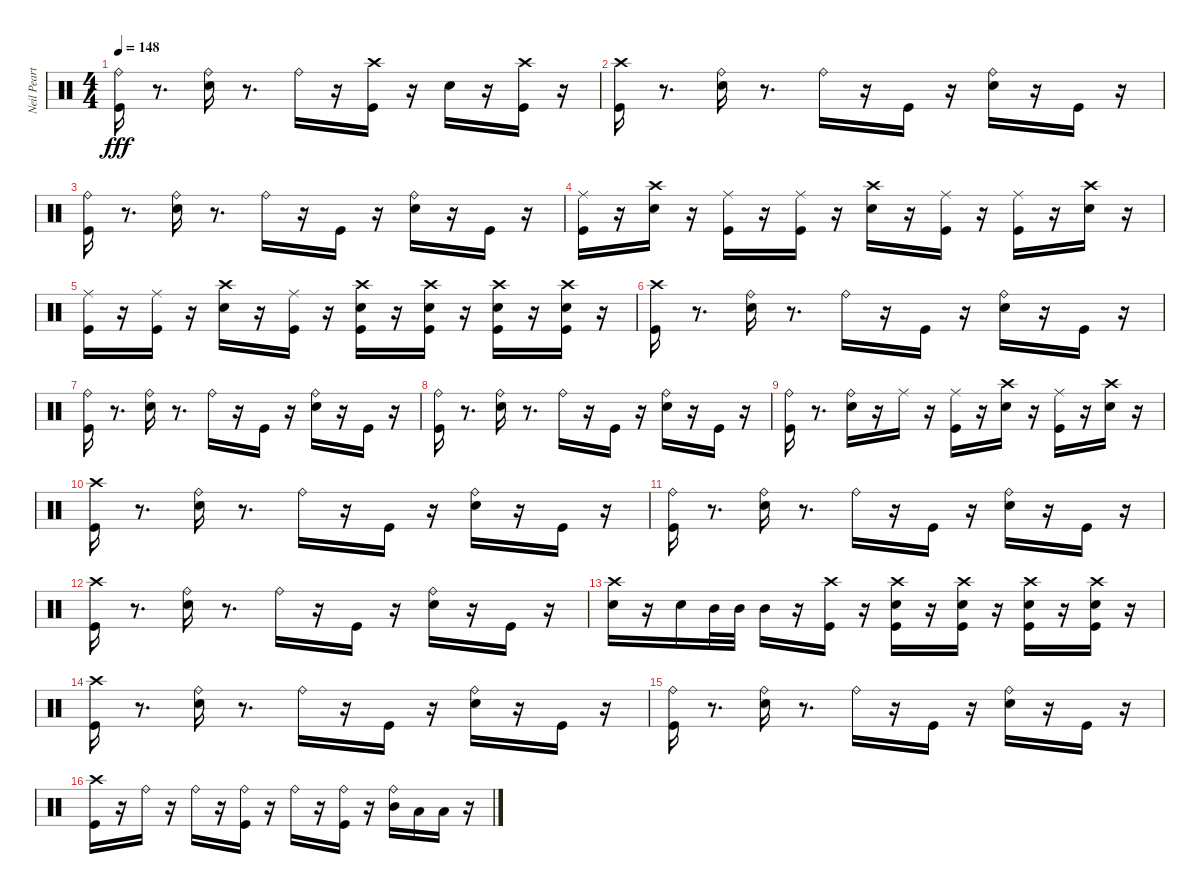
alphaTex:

\track ("Neil Peart" "Neil Peart") {instrument percussion}
\staff {score}
\articulation defaults
\ts (4 4)
\tempo 148
\clef neutral
\ks c
("Kick (hit)" "Ride (bell)").16{dy fff} r.8{d} ("Snare (hit) 2" "Ride (bell)").16 r.8{d} "Ride (bell)".16 r.16 ("Crash high (hit)" "Kick (hit)").16 r.16 "Snare (hit) 2".16 r.16 ("Crash high (hit)" "Kick (hit)").16 r.16 |
("Crash high (hit)" "Kick (hit)").16 r.8{d} ("Ride (bell)" "Snare (hit) 2").16 r.8{d} "Ride (bell)".16 r.16 "Kick (hit)".16 r.16 ("Ride (bell)" "Snare (hit) 2").16 r.16 "Kick (hit)".16 r.16 |
("Ride (bell)" "Kick (hit)").16 r.8{d} ("Ride (bell)" "Snare (hit) 2").16 r.8{d} "Ride (bell)".16 r.16 "Kick (hit)".16 r.16 ("Ride (bell)" "Snare (hit) 2").16 r.16 "Kick (hit)".16 r.16 |
("Kick (hit)" "Ride (middle)").16 r.16 ("Crash high (hit)" "Snare (hit) 2").16 r.16 ("Kick (hit)" "Ride (middle)").16 r.16 ("Kick (hit)" "Ride (middle)").16 r.16 ("Crash high (hit)" "Snare (hit) 2").16 r.16 ("Kick (hit)" "Ride (middle)").16 r.16 ("Kick (hit)" "Ride (middle)").16 r.16 ("Crash high (hit)" "Snare (hit) 2").16 r.16 |
("Ride (middle)" "Kick (hit)").16 r.16 ("Ride (middle)" "Kick (hit)").16 r.16 ("Crash high (hit)" "Snare (hit) 2").16 r.16 ("Ride (middle)" "Kick (hit)").16 r.16 ("Crash high (hit)" "Snare (hit) 2" "Kick (hit)").16 r.16 ("Crash high (hit)" "Snare (hit) 2" "Kick (hit)").16 r.16 ("Crash high (hit)" "Snare (hit) 2" "Kick (hit)").16 r.16 ("Crash high (hit)" "Snare (hit) 2" "Kick (hit)").16 r.16 |
("Crash high (hit)" "Kick (hit)").16 r.8{d} ("Snare (hit) 2" "Ride (bell)").16 r.8{d} "Ride (bell)".16 r.16 "Kick (hit)".16 r.16 ("Snare (hit) 2" "Ride (bell)").16 r.16 "Kick (hit)".16 r.16 |
("Kick (hit)" "Ride (bell)").16 r.8{d} ("Snare (hit) 2" "Ride (bell)").16 r.8{d} "Ride (bell)".16 r.16 "Kick (hit)".16 r.16 ("Snare (hit) 2" "Ride (bell)").16 r.16 "Kick (hit)".16 r.16 |
("Kick (hit)" "Ride (bell)").16 r.8{d} ("Snare (hit) 2" "Ride (bell)").16 r.8{d} "Ride (bell)".16 r.16 "Kick (hit)".16 r.16 ("Snare (hit) 2" "Ride (bell)").16 r.16 "Kick (hit)".16 r.16 |
("Ride (bell)" "Kick (hit)").16 r.8{d} ("Ride (bell)" "Snare (hit) 2").16 r.16 "Ride (middle)".16 r.16 ("Ride (middle)" "Kick (hit)").16 r.16 ("Crash high (hit)" "Snare (hit) 2").16 r.16 ("Ride (middle)" "Kick (hit)").16 r.16 ("Crash high (hit)" "Snare (hit) 2").16 r.16 |
("Crash high (hit)" "Kick (hit)").16 r.8{d} ("Snare (hit) 2" "Ride (bell)").16 r.8{d} "Ride (bell)".16 r.16 "Kick (hit)".16 r.16 ("Snare (hit) 2" "Ride (bell)").16 r.16 "Kick (hit)".16 r.16 |
("Ride (bell)" "Kick (hit)").16 r.8{d} ("Ride (bell)" "Snare (hit) 2").16 r.8{d} "Ride (bell)".16 r.16 "Kick (hit)".16 r.16 ("Ride (bell)" "Snare (hit) 2").16 r.16 "Kick (hit)".16 r.16 |
("Crash high (hit)" "Kick (hit)").16 r.8{d} ("Snare (hit) 2" "Ride (bell)").16 r.8{d} "Ride (bell)".16 r.16 "Kick (hit)".16 r.16 ("Snare (hit) 2" "Ride (bell)").16 r.16 "Kick (hit)".16 r.16 |
("Crash high (hit)" "Snare (hit) 2").16 r.16 "Snare (hit) 2".16 "Mid Tom (hit)".32 "Mid Tom (hit)".32 "Mid Tom (hit)".16 r.16 ("Crash high (hit)" "Kick (hit)").16 r.16 ("Crash high (hit)" "Snare (hit) 2" "Kick (hit)").16 r.16 ("Crash high (hit)" "Snare (hit) 2" "Kick (hit)").16 r.16 ("Crash high (hit)" "Snare (hit) 2" "Kick (hit)").16 r.16 ("Crash high (hit)" "Snare (hit) 2" "Kick (hit)").16 r.16 |
("Crash high (hit)" "Kick (hit)").16 r.8{d} ("Snare (hit) 2" "Ride (bell)").16 r.8{d} "Ride (bell)".16 r.16 "Kick (hit)".16 r.16 ("Snare (hit) 2" "Ride (bell)").16 r.16 "Kick (hit)".16 r.16 |
("Ride (bell)" "Kick (hit)").16 r.8{d} ("Ride (bell)" "Snare (hit) 2").16 r.8{d} "Ride (bell)".16 r.16 "Kick (hit)".16 r.16 ("Ride (bell)" "Snare (hit) 2").16 r.16 "Kick (hit)".16 r.16 |
("Crash high (hit)" "Kick (hit)").16 r.16 "Ride (bell)".16 r.16 "Ride (bell)".16 r.16 ("Kick (hit)" "Ride (bell)").16 r.16 "Ride (bell)".16 r.16 ("Kick (hit)" "Ride (bell)").16 r.16 ("Mid Tom (hit)" "Ride (bell)").16 "Low Floor Tom (hit)".16 "Low Floor Tom (hit)".16 r.16
